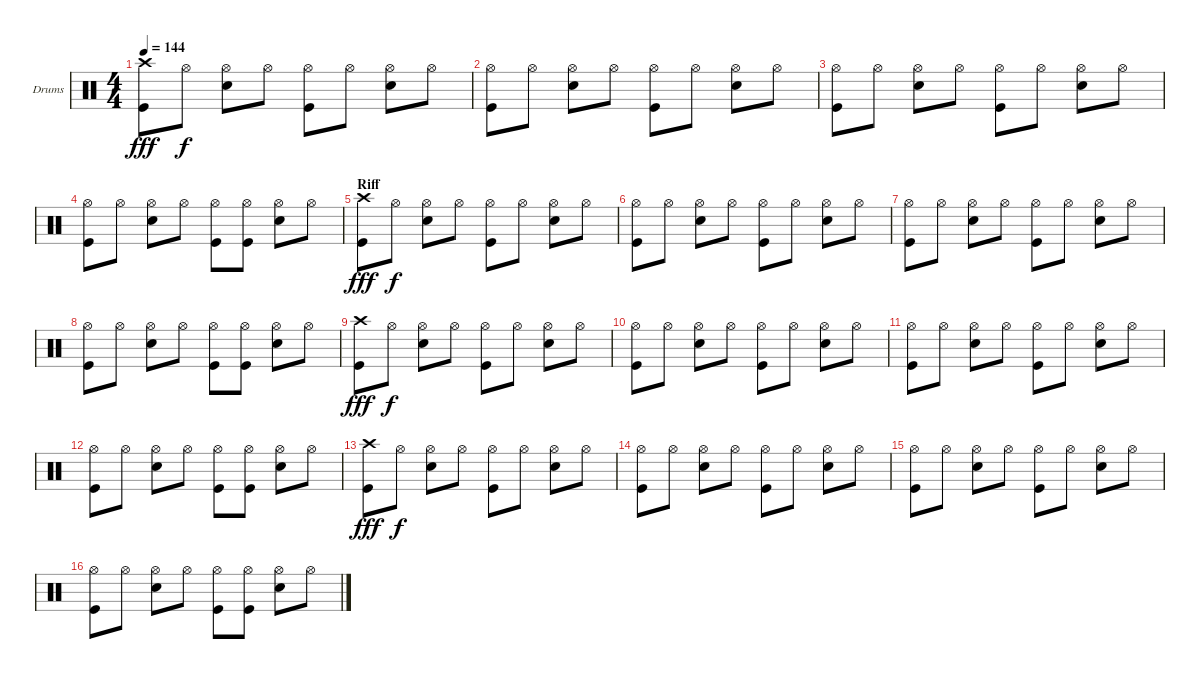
\bracketExtendMode groupsimilarinstruments
\firstSystemTrackNameOrientation horizontal
\otherSystemsTrackNameOrientation horizontal
\track ("Drums" "Drums") {instrument percussion}
\staff {score}
\articulation defaults
\ts (4 4)
\tempo 144
\clef neutral
\ks c
("Crash high (hit)" "Kick (hit)").8{dy fff} "Hi-Hat (open)".8{dy f} ("Hi-Hat (open)" "Snare (hit) 2").8 "Hi-Hat (open)".8 ("Hi-Hat (open)" "Kick (hit)").8 "Hi-Hat (open)".8 ("Hi-Hat (open)" "Snare (hit) 2").8 "Hi-Hat (open)".8 |
("Hi-Hat (open)" "Kick (hit)").8 "Hi-Hat (open)".8 ("Hi-Hat (open)" "Snare (hit) 2").8 "Hi-Hat (open)".8 ("Hi-Hat (open)" "Kick (hit)").8 "Hi-Hat (open)".8 ("Hi-Hat (open)" "Snare (hit) 2").8 "Hi-Hat (open)".8 |
("Hi-Hat (open)" "Kick (hit)").8 "Hi-Hat (open)".8 ("Hi-Hat (open)" "Snare (hit) 2").8 "Hi-Hat (open)".8 ("Hi-Hat (open)" "Kick (hit)").8 "Hi-Hat (open)".8 ("Hi-Hat (open)" "Snare (hit) 2").8 "Hi-Hat (open)".8 |
("Hi-Hat (open)" "Kick (hit)").8 "Hi-Hat (open)".8 ("Hi-Hat (open)" "Snare (hit) 2").8 "Hi-Hat (open)".8 ("Hi-Hat (open)" "Kick (hit)").8 ("Hi-Hat (open)" "Kick (hit)").8 ("Hi-Hat (open)" "Snare (hit) 2").8 "Hi-Hat (open)".8 |
\section ("" "Riff")
("Crash high (hit)" "Kick (hit)").8{dy fff} "Hi-Hat (open)".8{dy f} ("Hi-Hat (open)" "Snare (hit) 2").8 "Hi-Hat (open)".8 ("Hi-Hat (open)" "Kick (hit)").8 "Hi-Hat (open)".8 ("Hi-Hat (open)" "Snare (hit) 2").8 "Hi-Hat (open)".8 |
("Hi-Hat (open)" "Kick (hit)").8 "Hi-Hat (open)".8 ("Hi-Hat (open)" "Snare (hit) 2").8 "Hi-Hat (open)".8 ("Hi-Hat (open)" "Kick (hit)").8 "Hi-Hat (open)".8 ("Hi-Hat (open)" "Snare (hit) 2").8 "Hi-Hat (open)".8 |
("Hi-Hat (open)" "Kick (hit)").8 "Hi-Hat (open)".8 ("Hi-Hat (open)" "Snare (hit) 2").8 "Hi-Hat (open)".8 ("Hi-Hat (open)" "Kick (hit)").8 "Hi-Hat (open)".8 ("Hi-Hat (open)" "Snare (hit) 2").8 "Hi-Hat (open)".8 |
("Hi-Hat (open)" "Kick (hit)").8 "Hi-Hat (open)".8 ("Hi-Hat (open)" "Snare (hit) 2").8 "Hi-Hat (open)".8 ("Hi-Hat (open)" "Kick (hit)").8 ("Hi-Hat (open)" "Kick (hit)").8 ("Hi-Hat (open)" "Snare (hit) 2").8 "Hi-Hat (open)".8 |
("Crash high (hit)" "Kick (hit)").8{dy fff} "Hi-Hat (open)".8{dy f} ("Hi-Hat (open)" "Snare (hit) 2").8 "Hi-Hat (open)".8 ("Hi-Hat (open)" "Kick (hit)").8 "Hi-Hat (open)".8 ("Hi-Hat (open)" "Snare (hit) 2").8 "Hi-Hat (open)".8 |
("Hi-Hat (open)" "Kick (hit)").8 "Hi-Hat (open)".8 ("Hi-Hat (open)" "Snare (hit) 2").8 "Hi-Hat (open)".8 ("Hi-Hat (open)" "Kick (hit)").8 "Hi-Hat (open)".8 ("Hi-Hat (open)" "Snare (hit) 2").8 "Hi-Hat (open)".8 |
("Hi-Hat (open)" "Kick (hit)").8 "Hi-Hat (open)".8 ("Hi-Hat (open)" "Snare (hit) 2").8 "Hi-Hat (open)".8 ("Hi-Hat (open)" "Kick (hit)").8 "Hi-Hat (open)".8 ("Hi-Hat (open)" "Snare (hit) 2").8 "Hi-Hat (open)".8 |
("Hi-Hat (open)" "Kick (hit)").8 "Hi-Hat (open)".8 ("Hi-Hat (open)" "Snare (hit) 2").8 "Hi-Hat (open)".8 ("Hi-Hat (open)" "Kick (hit)").8 ("Hi-Hat (open)" "Kick (hit)").8 ("Hi-Hat (open)" "Snare (hit) 2").8 "Hi-Hat (open)".8 |
("Crash high (hit)" "Kick (hit)").8{dy fff} "Hi-Hat (open)".8{dy f} ("Hi-Hat (open)" "Snare (hit) 2").8 "Hi-Hat (open)".8 ("Hi-Hat (open)" "Kick (hit)").8 "Hi-Hat (open)".8 ("Hi-Hat (open)" "Snare (hit) 2").8 "Hi-Hat (open)".8 |
("Hi-Hat (open)" "Kick (hit)").8 "Hi-Hat (open)".8 ("Hi-Hat (open)" "Snare (hit) 2").8 "Hi-Hat (open)".8 ("Hi-Hat (open)" "Kick (hit)").8 "Hi-Hat (open)".8 ("Hi-Hat (open)" "Snare (hit) 2").8 "Hi-Hat (open)".8 |
("Hi-Hat (open)" "Kick (hit)").8 "Hi-Hat (open)".8 ("Hi-Hat (open)" "Snare (hit) 2").8 "Hi-Hat (open)".8 ("Hi-Hat (open)" "Kick (hit)").8 "Hi-Hat (open)".8 ("Hi-Hat (open)" "Snare (hit) 2").8 "Hi-Hat (open)".8 |
("Hi-Hat (open)" "Kick (hit)").8 "Hi-Hat (open)".8 ("Hi-Hat (open)" "Snare (hit) 2").8 "Hi-Hat (open)".8 ("Hi-Hat (open)" "Kick (hit)").8 ("Hi-Hat (open)" "Kick (hit)").8 ("Hi-Hat (open)" "Snare (hit) 2").8 "Hi-Hat (open)".8
